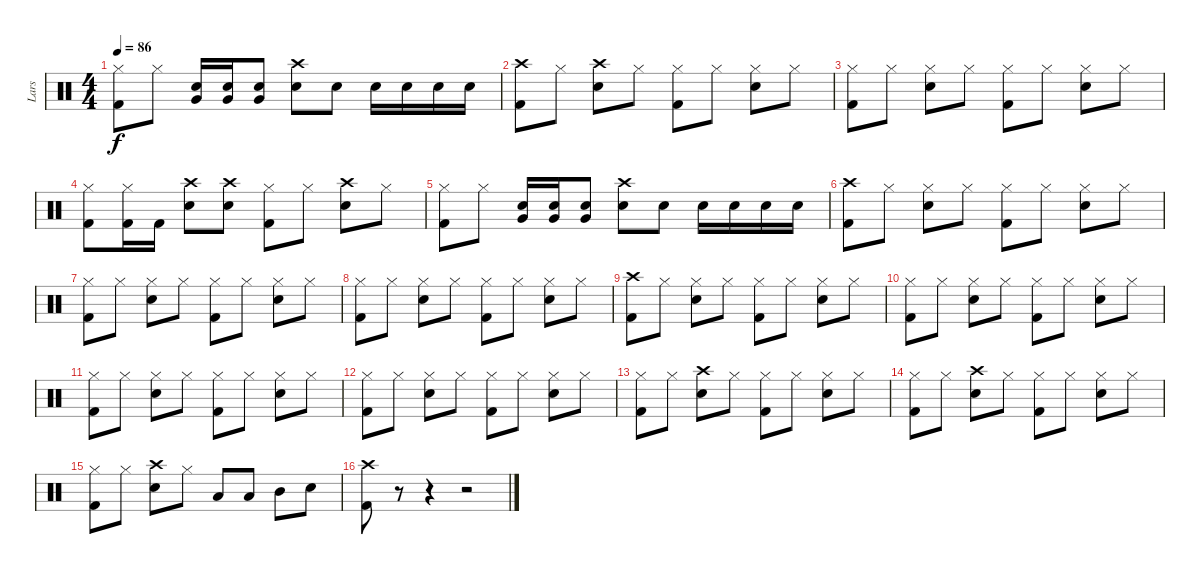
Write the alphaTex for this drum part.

\track ("Lars" "Lars") {instrument percussion}
\staff {score}
\articulation defaults
\ts (4 4)
\tempo 86
\clef neutral
\ks c
("Hi-Hat (closed)" "Kick (hit) 2").8{dy f} "Hi-Hat (closed)".8 ("Electric Snare (hit)" "Very Low Tom (hit)").16 ("Electric Snare (hit)" "Very Low Tom (hit)").16 ("Electric Snare (hit)" "Very Low Tom (hit)").8 ("Crash high (hit)" "Electric Snare (hit)").8 "Electric Snare (hit)".8 "Electric Snare (hit)".16 "Electric Snare (hit)".16 "Electric Snare (hit)".16 "Electric Snare (hit)".16 |
("Crash high (hit)" "Kick (hit) 2").8 "Hi-Hat (closed)".8 ("Crash high (hit)" "Electric Snare (hit)").8 "Hi-Hat (closed)".8 ("Hi-Hat (closed)" "Kick (hit) 2").8 "Hi-Hat (closed)".8 ("Hi-Hat (closed)" "Electric Snare (hit)").8 "Hi-Hat (closed)".8 |
("Hi-Hat (closed)" "Kick (hit) 2").8 "Hi-Hat (closed)".8 ("Hi-Hat (closed)" "Electric Snare (hit)").8 "Hi-Hat (closed)".8 ("Hi-Hat (closed)" "Kick (hit) 2").8 "Hi-Hat (closed)".8 ("Hi-Hat (closed)" "Electric Snare (hit)").8 "Hi-Hat (closed)".8 |
("Hi-Hat (closed)" "Kick (hit) 2").8 ("Hi-Hat (closed)" "Kick (hit) 2").16 "Kick (hit) 2".16 ("Crash high (hit)" "Electric Snare (hit)").8 ("Crash high (hit)" "Electric Snare (hit)").8 ("Hi-Hat (closed)" "Kick (hit) 2").8 "Hi-Hat (closed)".8 ("Crash high (hit)" "Electric Snare (hit)").8 "Hi-Hat (closed)".8 |
("Hi-Hat (closed)" "Kick (hit) 2").8 "Hi-Hat (closed)".8 ("Electric Snare (hit)" "Very Low Tom (hit)").16 ("Electric Snare (hit)" "Very Low Tom (hit)").16 ("Electric Snare (hit)" "Very Low Tom (hit)").8 ("Crash high (hit)" "Electric Snare (hit)").8 "Electric Snare (hit)".8 "Electric Snare (hit)".16 "Electric Snare (hit)".16 "Electric Snare (hit)".16 "Electric Snare (hit)".16 |
("Crash high (hit)" "Kick (hit) 2").8 "Hi-Hat (closed)".8 ("Hi-Hat (closed)" "Electric Snare (hit)").8 "Hi-Hat (closed)".8 ("Hi-Hat (closed)" "Kick (hit) 2").8 "Hi-Hat (closed)".8 ("Hi-Hat (closed)" "Electric Snare (hit)").8 "Hi-Hat (closed)".8 |
("Hi-Hat (closed)" "Kick (hit) 2").8 "Hi-Hat (closed)".8 ("Hi-Hat (closed)" "Electric Snare (hit)").8 "Hi-Hat (closed)".8 ("Hi-Hat (closed)" "Kick (hit) 2").8 "Hi-Hat (closed)".8 ("Hi-Hat (closed)" "Electric Snare (hit)").8 "Hi-Hat (closed)".8 |
("Hi-Hat (closed)" "Kick (hit) 2").8 "Hi-Hat (closed)".8 ("Hi-Hat (closed)" "Electric Snare (hit)").8 "Hi-Hat (closed)".8 ("Hi-Hat (closed)" "Kick (hit) 2").8 "Hi-Hat (closed)".8 ("Hi-Hat (closed)" "Electric Snare (hit)").8 "Hi-Hat (closed)".8 |
("Crash high (hit)" "Kick (hit) 2").8 "Hi-Hat (closed)".8 ("Hi-Hat (closed)" "Electric Snare (hit)").8 "Hi-Hat (closed)".8 ("Hi-Hat (closed)" "Kick (hit) 2").8 "Hi-Hat (closed)".8 ("Hi-Hat (closed)" "Electric Snare (hit)").8 "Hi-Hat (closed)".8 |
("Hi-Hat (closed)" "Kick (hit) 2").8 "Hi-Hat (closed)".8 ("Hi-Hat (closed)" "Electric Snare (hit)").8 "Hi-Hat (closed)".8 ("Hi-Hat (closed)" "Kick (hit) 2").8 "Hi-Hat (closed)".8 ("Hi-Hat (closed)" "Electric Snare (hit)").8 "Hi-Hat (closed)".8 |
("Hi-Hat (closed)" "Kick (hit) 2").8 "Hi-Hat (closed)".8 ("Hi-Hat (closed)" "Electric Snare (hit)").8 "Hi-Hat (closed)".8 ("Hi-Hat (closed)" "Kick (hit) 2").8 "Hi-Hat (closed)".8 ("Hi-Hat (closed)" "Electric Snare (hit)").8 "Hi-Hat (closed)".8 |
("Hi-Hat (closed)" "Kick (hit) 2").8 "Hi-Hat (closed)".8 ("Hi-Hat (closed)" "Electric Snare (hit)").8 "Hi-Hat (closed)".8 ("Hi-Hat (closed)" "Kick (hit) 2").8 "Hi-Hat (closed)".8 ("Hi-Hat (closed)" "Electric Snare (hit)").8 "Hi-Hat (closed)".8 |
("Hi-Hat (closed)" "Kick (hit) 2").8 "Hi-Hat (closed)".8 ("Crash high (hit)" "Electric Snare (hit)").8 "Hi-Hat (closed)".8 ("Hi-Hat (closed)" "Kick (hit) 2").8 "Hi-Hat (closed)".8 ("Hi-Hat (closed)" "Electric Snare (hit)").8 "Hi-Hat (closed)".8 |
("Hi-Hat (closed)" "Kick (hit) 2").8 "Hi-Hat (closed)".8 ("Crash high (hit)" "Electric Snare (hit)").8 "Hi-Hat (closed)".8 ("Hi-Hat (closed)" "Kick (hit) 2").8 "Hi-Hat (closed)".8 ("Hi-Hat (closed)" "Electric Snare (hit)").8 "Hi-Hat (closed)".8 |
("Hi-Hat (closed)" "Kick (hit) 2").8 "Hi-Hat (closed)".8 ("Crash high (hit)" "Electric Snare (hit)").8 "Hi-Hat (closed)".8 "Low Tom (hit)".8 "Low Tom (hit)".8 "Mid Tom (hit)".8 "Electric Snare (hit)".8 |
("Crash high (hit)" "Kick (hit) 2").8 r.8 r.4 r.2
